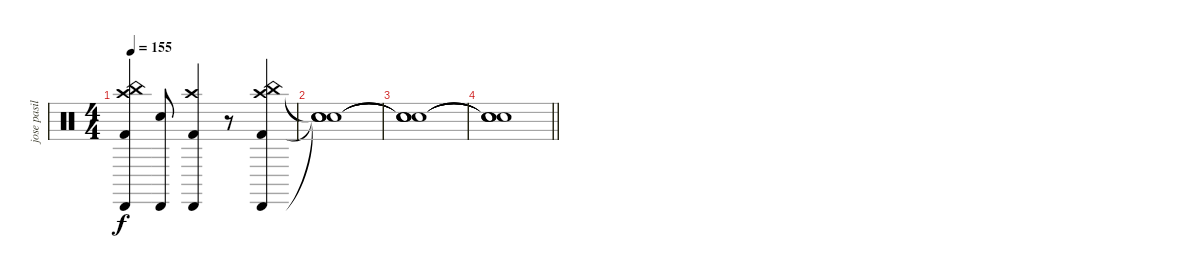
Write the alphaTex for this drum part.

\track ("jose pasillas" "jose pasil") {instrument percussion}
\staff {score}
\articulation defaults
\ts (4 4)
\tempo 155
\clef neutral
\ks c
("Cabasa (hit)" "China (hit)" "Crash high (hit)" "Kick (hit) 2").4{dy f} ("Cabasa (hit)" "Snare (hit) 2").8 ("Cabasa (hit)" "Crash high (hit)" "Kick (hit) 2").4 r.8 ("Cabasa (hit)" "China (hit)" "Crash high (hit)" "Kick (hit) 2").4 |
("Snare (hit)"{t} "Snare (hit)"{t} "Snare (hit)"{t} "Snare (hit)"{t}).1 |
("Snare (hit)"{t} "Snare (hit)"{t} "Snare (hit)"{t} "Snare (hit)"{t}).1 |
\barLineRight lightlight
("Snare (hit)"{t} "Snare (hit)"{t} "Snare (hit)"{t} "Snare (hit)"{t}).1
